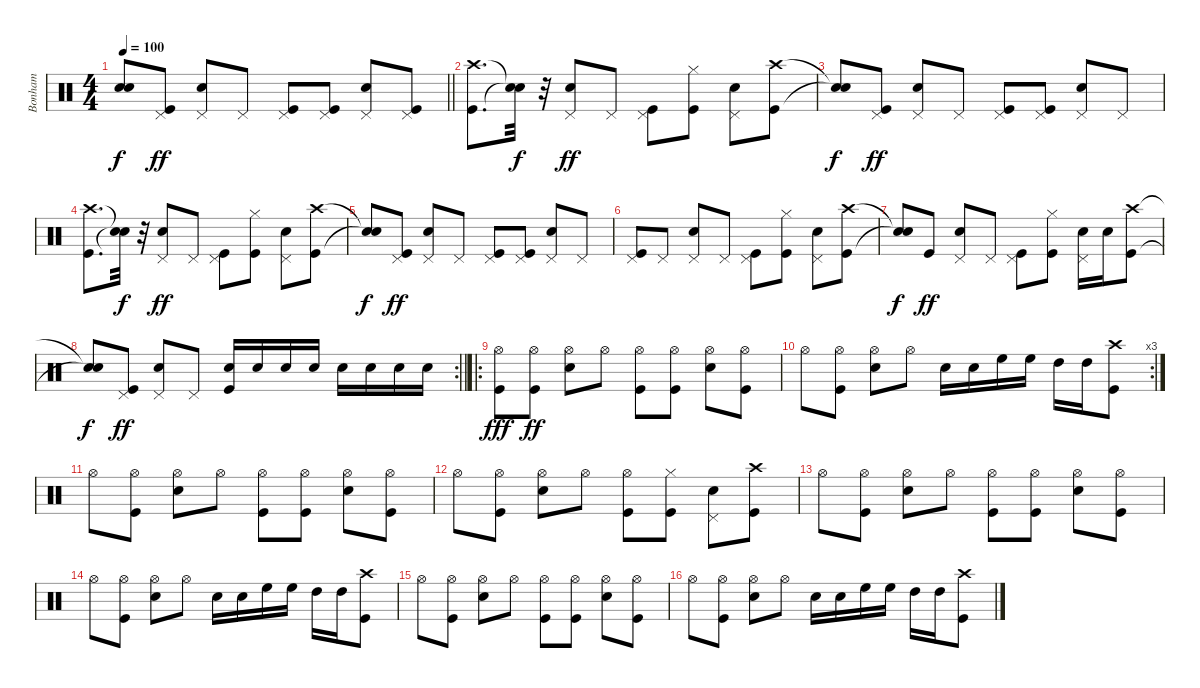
\track ("Bonham" "Bonham") {instrument percussion}
\staff {score}
\articulation defaults
\ts (4 4)
\tempo 100
\clef neutral
\barLineRight lightlight
\ks c
("Snare (hit)"{t} "Snare (hit)"{t}).8{dy f} ("Kick (hit)" "Pedal Hi-Hat (hit)").8{dy ff} ("Snare (hit) 2" "Pedal Hi-Hat (hit)").8 "Pedal Hi-Hat (hit)".8 ("Kick (hit)" "Pedal Hi-Hat (hit)").8 ("Kick (hit)" "Pedal Hi-Hat (hit)").8 ("Snare (hit) 2" "Pedal Hi-Hat (hit)").8 ("Kick (hit)" "Pedal Hi-Hat (hit)").8 |
("Kick (hit)" "Crash high (hit)").8{d} ("Snare (hit)"{t} "Snare (hit)"{t}).32{dy f} r.32 ("Snare (hit) 2" "Pedal Hi-Hat (hit)").8{dy ff} "Pedal Hi-Hat (hit)".8 ("Kick (hit)" "Pedal Hi-Hat (hit)").8 ("Kick (hit)" "Hi-Hat (closed)").8 ("Snare (hit) 2" "Pedal Hi-Hat (hit)").8 ("Kick (hit)" "Crash high (hit)").8 |
("Snare (hit)"{t} "Snare (hit)"{t}).8{dy f} ("Kick (hit)" "Pedal Hi-Hat (hit)").8{dy ff} ("Snare (hit) 2" "Pedal Hi-Hat (hit)").8 "Pedal Hi-Hat (hit)".8 ("Kick (hit)" "Pedal Hi-Hat (hit)").8 ("Kick (hit)" "Pedal Hi-Hat (hit)").8 ("Snare (hit) 2" "Pedal Hi-Hat (hit)").8 "Pedal Hi-Hat (hit)".8 |
("Kick (hit)" "Crash high (hit)").8{d} ("Snare (hit)"{t} "Snare (hit)"{t}).32{dy f} r.32 ("Snare (hit) 2" "Pedal Hi-Hat (hit)").8{dy ff} "Pedal Hi-Hat (hit)".8 ("Kick (hit)" "Pedal Hi-Hat (hit)").8 ("Kick (hit)" "Hi-Hat (closed)").8 ("Snare (hit) 2" "Pedal Hi-Hat (hit)").8 ("Kick (hit)" "Crash high (hit)").8 |
("Snare (hit)"{t} "Snare (hit)"{t}).8{dy f} ("Kick (hit)" "Pedal Hi-Hat (hit)").8{dy ff} ("Snare (hit) 2" "Pedal Hi-Hat (hit)").8 "Pedal Hi-Hat (hit)".8 ("Kick (hit)" "Pedal Hi-Hat (hit)").8 ("Kick (hit)" "Pedal Hi-Hat (hit)").8 ("Snare (hit) 2" "Pedal Hi-Hat (hit)").8 "Pedal Hi-Hat (hit)".8 |
("Kick (hit)" "Pedal Hi-Hat (hit)").8 "Pedal Hi-Hat (hit)".8 ("Snare (hit) 2" "Pedal Hi-Hat (hit)").8 "Pedal Hi-Hat (hit)".8 ("Kick (hit)" "Pedal Hi-Hat (hit)").8 ("Kick (hit)" "Hi-Hat (closed)").8 ("Snare (hit) 2" "Pedal Hi-Hat (hit)").8 ("Kick (hit)" "Crash high (hit)").8 |
("Snare (hit)"{t} "Snare (hit)"{t}).8{dy f} "Kick (hit)".8{dy ff} ("Snare (hit) 2" "Pedal Hi-Hat (hit)").8 "Pedal Hi-Hat (hit)".8 ("Kick (hit)" "Pedal Hi-Hat (hit)").8 ("Kick (hit)" "Hi-Hat (closed)").8 ("Snare (hit) 2" "Pedal Hi-Hat (hit)").16 "Snare (hit) 2".16 ("Kick (hit)" "Crash high (hit)").8 |
\rc 2
\barLineRight lightlight
("Snare (hit)"{t} "Snare (hit)"{t}).8{dy f} ("Kick (hit)" "Pedal Hi-Hat (hit)").8{dy ff} ("Snare (hit) 2" "Pedal Hi-Hat (hit)").8 "Pedal Hi-Hat (hit)".8 ("Kick (hit)" "Snare (hit) 2").16 "Snare (hit) 2".16 "Snare (hit) 2".16 "Snare (hit) 2".16 "Snare (hit) 2".16 "Snare (hit) 2".16 "Snare (hit) 2".16 "Snare (hit) 2".16 |
\ro
("Kick (hit)" "Hi-Hat (open)").8{dy fff} ("Kick (hit)" "Hi-Hat (open)").8{dy ff} ("Snare (hit) 2" "Hi-Hat (open)").8 "Hi-Hat (open)".8 ("Kick (hit)" "Hi-Hat (open)").8 ("Kick (hit)" "Hi-Hat (open)").8 ("Snare (hit) 2" "Hi-Hat (open)").8 ("Kick (hit)" "Hi-Hat (open)").8 |
\rc 3 "Hi-Hat (open)".8
("Kick (hit)" "Hi-Hat (open)").8 ("Snare (hit) 2" "Hi-Hat (open)").8 "Hi-Hat (open)".8 "Snare (hit) 2".16 "Snare (hit) 2".16 "High Floor Tom (hit)".16 "High Floor Tom (hit)".16 "High Tom (hit)".16 "High Tom (hit)".16 ("Kick (hit)" "Crash high (hit)").8 |
"Hi-Hat (open)".8 ("Kick (hit)" "Hi-Hat (open)").8 ("Snare (hit) 2" "Hi-Hat (open)").8 "Hi-Hat (open)".8 ("Kick (hit)" "Hi-Hat (open)").8 ("Kick (hit)" "Hi-Hat (open)").8 ("Snare (hit) 2" "Hi-Hat (open)").8 ("Kick (hit)" "Hi-Hat (open)").8 |
"Hi-Hat (open)".8 ("Kick (hit)" "Hi-Hat (open)").8 ("Snare (hit) 2" "Hi-Hat (open)").8 "Hi-Hat (open)".8 ("Kick (hit)" "Hi-Hat (open)").8 ("Kick (hit)" "Hi-Hat (closed)").8 ("Snare (hit) 2" "Pedal Hi-Hat (hit)").8 ("Kick (hit)" "Crash high (hit)").8 |
"Hi-Hat (open)".8 ("Kick (hit)" "Hi-Hat (open)").8 ("Snare (hit) 2" "Hi-Hat (open)").8 "Hi-Hat (open)".8 ("Kick (hit)" "Hi-Hat (open)").8 ("Kick (hit)" "Hi-Hat (open)").8 ("Snare (hit) 2" "Hi-Hat (open)").8 ("Kick (hit)" "Hi-Hat (open)").8 |
"Hi-Hat (open)".8 ("Kick (hit)" "Hi-Hat (open)").8 ("Snare (hit) 2" "Hi-Hat (open)").8 "Hi-Hat (open)".8 "Snare (hit) 2".16 "Snare (hit) 2".16 "High Floor Tom (hit)".16 "High Floor Tom (hit)".16 "High Tom (hit)".16 "High Tom (hit)".16 ("Kick (hit)" "Crash high (hit)").8 |
"Hi-Hat (open)".8 ("Kick (hit)" "Hi-Hat (open)").8 ("Snare (hit) 2" "Hi-Hat (open)").8 "Hi-Hat (open)".8 ("Kick (hit)" "Hi-Hat (open)").8 ("Kick (hit)" "Hi-Hat (open)").8 ("Snare (hit) 2" "Hi-Hat (open)").8 ("Kick (hit)" "Hi-Hat (open)").8 |
"Hi-Hat (open)".8 ("Kick (hit)" "Hi-Hat (open)").8 ("Snare (hit) 2" "Hi-Hat (open)").8 "Hi-Hat (open)".8 "Snare (hit) 2".16 "Snare (hit) 2".16 "High Floor Tom (hit)".16 "High Floor Tom (hit)".16 "High Tom (hit)".16 "High Tom (hit)".16 ("Kick (hit)" "Crash high (hit)").8
